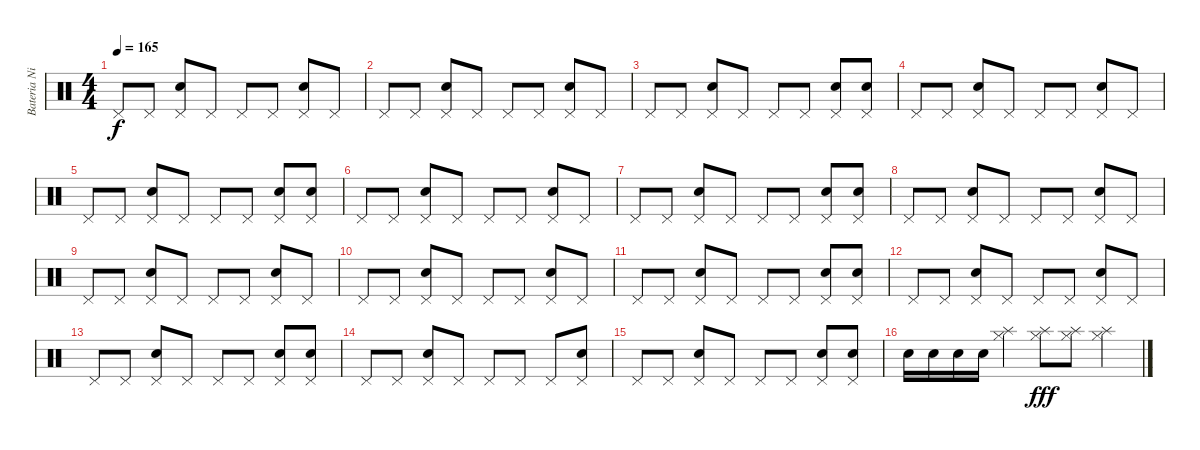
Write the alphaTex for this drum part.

\track ("Bateria Nicolas Cabrera" "Bateria Ni") {instrument percussion}
\staff {score}
\articulation defaults
\ts (4 4)
\tempo 165
\clef neutral
\ks c "Pedal Hi-Hat (hit)".8{dy f} "Pedal Hi-Hat (hit)".8
("Electric Snare (hit)" "Pedal Hi-Hat (hit)").8 "Pedal Hi-Hat (hit)".8 "Pedal Hi-Hat (hit)".8 "Pedal Hi-Hat (hit)".8 ("Electric Snare (hit)" "Pedal Hi-Hat (hit)").8 "Pedal Hi-Hat (hit)".8 |
"Pedal Hi-Hat (hit)".8 "Pedal Hi-Hat (hit)".8 ("Electric Snare (hit)" "Pedal Hi-Hat (hit)").8 "Pedal Hi-Hat (hit)".8 "Pedal Hi-Hat (hit)".8 "Pedal Hi-Hat (hit)".8 ("Electric Snare (hit)" "Pedal Hi-Hat (hit)").8 "Pedal Hi-Hat (hit)".8 |
"Pedal Hi-Hat (hit)".8 "Pedal Hi-Hat (hit)".8 ("Electric Snare (hit)" "Pedal Hi-Hat (hit)").8 "Pedal Hi-Hat (hit)".8 "Pedal Hi-Hat (hit)".8 "Pedal Hi-Hat (hit)".8 ("Electric Snare (hit)" "Pedal Hi-Hat (hit)").8 ("Electric Snare (hit)" "Pedal Hi-Hat (hit)").8 |
"Pedal Hi-Hat (hit)".8 "Pedal Hi-Hat (hit)".8 ("Electric Snare (hit)" "Pedal Hi-Hat (hit)").8 "Pedal Hi-Hat (hit)".8 "Pedal Hi-Hat (hit)".8 "Pedal Hi-Hat (hit)".8 ("Electric Snare (hit)" "Pedal Hi-Hat (hit)").8 "Pedal Hi-Hat (hit)".8 |
"Pedal Hi-Hat (hit)".8 "Pedal Hi-Hat (hit)".8 ("Electric Snare (hit)" "Pedal Hi-Hat (hit)").8 "Pedal Hi-Hat (hit)".8 "Pedal Hi-Hat (hit)".8 "Pedal Hi-Hat (hit)".8 ("Electric Snare (hit)" "Pedal Hi-Hat (hit)").8 ("Electric Snare (hit)" "Pedal Hi-Hat (hit)").8 |
"Pedal Hi-Hat (hit)".8 "Pedal Hi-Hat (hit)".8 ("Electric Snare (hit)" "Pedal Hi-Hat (hit)").8 "Pedal Hi-Hat (hit)".8 "Pedal Hi-Hat (hit)".8 "Pedal Hi-Hat (hit)".8 ("Electric Snare (hit)" "Pedal Hi-Hat (hit)").8 "Pedal Hi-Hat (hit)".8 |
"Pedal Hi-Hat (hit)".8 "Pedal Hi-Hat (hit)".8 ("Electric Snare (hit)" "Pedal Hi-Hat (hit)").8 "Pedal Hi-Hat (hit)".8 "Pedal Hi-Hat (hit)".8 "Pedal Hi-Hat (hit)".8 ("Electric Snare (hit)" "Pedal Hi-Hat (hit)").8 ("Electric Snare (hit)" "Pedal Hi-Hat (hit)").8 |
"Pedal Hi-Hat (hit)".8 "Pedal Hi-Hat (hit)".8 ("Electric Snare (hit)" "Pedal Hi-Hat (hit)").8 "Pedal Hi-Hat (hit)".8 "Pedal Hi-Hat (hit)".8 "Pedal Hi-Hat (hit)".8 ("Electric Snare (hit)" "Pedal Hi-Hat (hit)").8 "Pedal Hi-Hat (hit)".8 |
"Pedal Hi-Hat (hit)".8 "Pedal Hi-Hat (hit)".8 ("Electric Snare (hit)" "Pedal Hi-Hat (hit)").8 "Pedal Hi-Hat (hit)".8 "Pedal Hi-Hat (hit)".8 "Pedal Hi-Hat (hit)".8 ("Electric Snare (hit)" "Pedal Hi-Hat (hit)").8 "Pedal Hi-Hat (hit)".8 |
"Pedal Hi-Hat (hit)".8 "Pedal Hi-Hat (hit)".8 ("Electric Snare (hit)" "Pedal Hi-Hat (hit)").8 "Pedal Hi-Hat (hit)".8 "Pedal Hi-Hat (hit)".8 "Pedal Hi-Hat (hit)".8 ("Electric Snare (hit)" "Pedal Hi-Hat (hit)").8 "Pedal Hi-Hat (hit)".8 |
"Pedal Hi-Hat (hit)".8 "Pedal Hi-Hat (hit)".8 ("Electric Snare (hit)" "Pedal Hi-Hat (hit)").8 "Pedal Hi-Hat (hit)".8 "Pedal Hi-Hat (hit)".8 "Pedal Hi-Hat (hit)".8 ("Electric Snare (hit)" "Pedal Hi-Hat (hit)").8 ("Electric Snare (hit)" "Pedal Hi-Hat (hit)").8 |
"Pedal Hi-Hat (hit)".8 "Pedal Hi-Hat (hit)".8 ("Electric Snare (hit)" "Pedal Hi-Hat (hit)").8 "Pedal Hi-Hat (hit)".8 "Pedal Hi-Hat (hit)".8 "Pedal Hi-Hat (hit)".8 ("Electric Snare (hit)" "Pedal Hi-Hat (hit)").8 "Pedal Hi-Hat (hit)".8 |
"Pedal Hi-Hat (hit)".8 "Pedal Hi-Hat (hit)".8 ("Electric Snare (hit)" "Pedal Hi-Hat (hit)").8 "Pedal Hi-Hat (hit)".8 "Pedal Hi-Hat (hit)".8 "Pedal Hi-Hat (hit)".8 ("Electric Snare (hit)" "Pedal Hi-Hat (hit)").8 ("Electric Snare (hit)" "Pedal Hi-Hat (hit)").8 |
"Pedal Hi-Hat (hit)".8 "Pedal Hi-Hat (hit)".8 ("Electric Snare (hit)" "Pedal Hi-Hat (hit)").8 "Pedal Hi-Hat (hit)".8 "Pedal Hi-Hat (hit)".8 "Pedal Hi-Hat (hit)".8 "Pedal Hi-Hat (hit)".8 ("Electric Snare (hit)" "Pedal Hi-Hat (hit)").8 |
"Pedal Hi-Hat (hit)".8 "Pedal Hi-Hat (hit)".8 ("Electric Snare (hit)" "Pedal Hi-Hat (hit)").8 "Pedal Hi-Hat (hit)".8 "Pedal Hi-Hat (hit)".8 "Pedal Hi-Hat (hit)".8 ("Electric Snare (hit)" "Pedal Hi-Hat (hit)").8 ("Electric Snare (hit)" "Pedal Hi-Hat (hit)").8 |
"Electric Snare (hit)".16 "Electric Snare (hit)".16 "Electric Snare (hit)".16 "Electric Snare (hit)".16 ("Splash (hit)" "Hi-Hat (closed)").4 ("Splash (hit)" "Hi-Hat (closed)").8{dy fff} ("Splash (hit)" "Hi-Hat (closed)").8 ("Splash (hit)" "Hi-Hat (closed)").4
